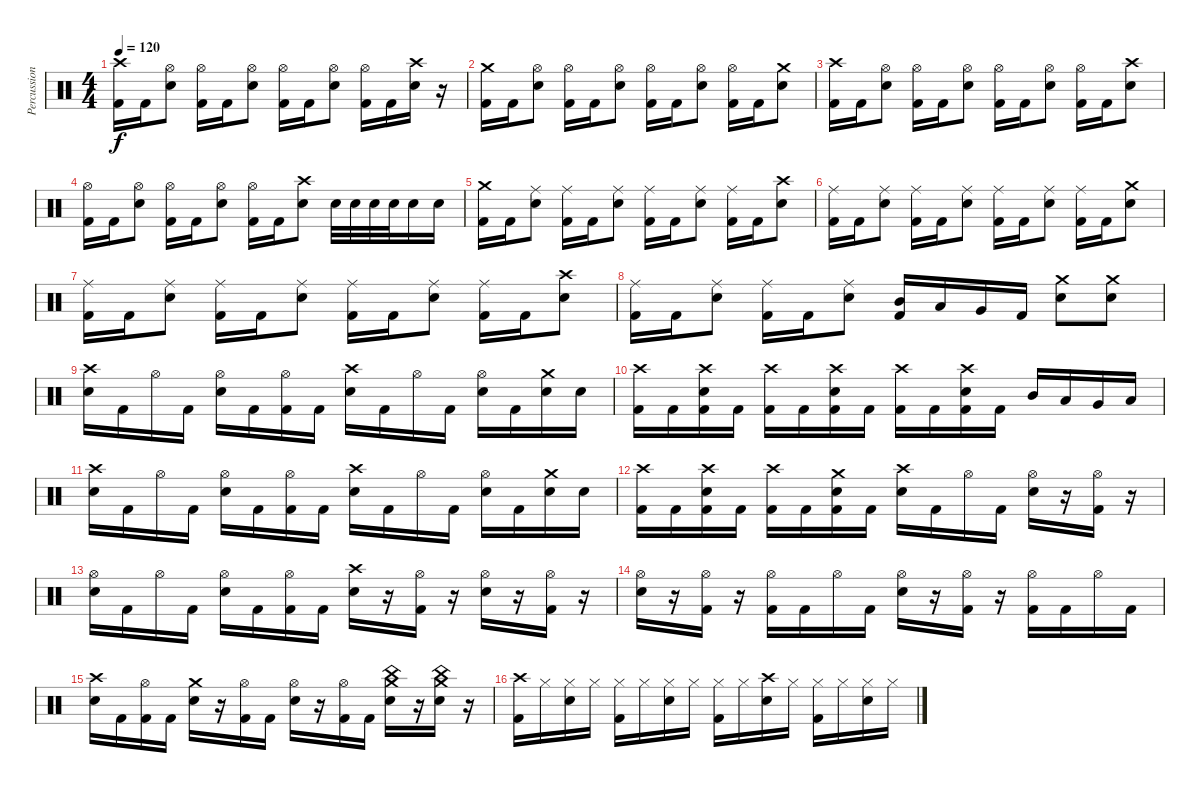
\track ("Percussion" "Percussion") {instrument percussion}
\staff {score}
\articulation defaults
\ts (4 4)
\tempo 120
\clef neutral
\ks c
("Kick (hit) 2" "Crash high (hit)").16{dy f} "Kick (hit) 2".16 ("Snare (hit) 2" "Hi-Hat (open)").8 ("Kick (hit) 2" "Hi-Hat (open)").16 "Kick (hit) 2".16 ("Snare (hit) 2" "Hi-Hat (open)").8 ("Kick (hit) 2" "Hi-Hat (open)").16 "Kick (hit) 2".16 ("Snare (hit) 2" "Hi-Hat (open)").8 ("Kick (hit) 2" "Hi-Hat (open)").16 "Kick (hit) 2".16 ("Snare (hit) 2" "Crash high (hit)").16 r.16 |
("Kick (hit) 2" "Crash medium (hit)").16 "Kick (hit) 2".16 ("Snare (hit) 2" "Hi-Hat (open)").8 ("Kick (hit) 2" "Hi-Hat (open)").16 "Kick (hit) 2".16 ("Snare (hit) 2" "Hi-Hat (open)").8 ("Kick (hit) 2" "Hi-Hat (open)").16 "Kick (hit) 2".16 ("Snare (hit) 2" "Hi-Hat (open)").8 ("Kick (hit) 2" "Hi-Hat (open)").16 "Kick (hit) 2".16 ("Snare (hit) 2" "Crash medium (hit)").8 |
("Kick (hit) 2" "Crash high (hit)").16 "Kick (hit) 2".16 ("Snare (hit) 2" "Hi-Hat (open)").8 ("Kick (hit) 2" "Hi-Hat (open)").16 "Kick (hit) 2".16 ("Snare (hit) 2" "Hi-Hat (open)").8 ("Kick (hit) 2" "Hi-Hat (open)").16 "Kick (hit) 2".16 ("Snare (hit) 2" "Hi-Hat (open)").8 ("Kick (hit) 2" "Hi-Hat (open)").16 "Kick (hit) 2".16 ("Snare (hit) 2" "Crash high (hit)").8 |
("Kick (hit) 2" "Hi-Hat (open)").16 "Kick (hit) 2".16 ("Snare (hit) 2" "Hi-Hat (open)").8 ("Kick (hit) 2" "Hi-Hat (open)").16 "Kick (hit) 2".16 ("Snare (hit) 2" "Hi-Hat (open)").8 ("Kick (hit) 2" "Hi-Hat (open)").16 "Kick (hit) 2".16 ("Snare (hit) 2" "Crash high (hit)").8 "Snare (hit) 2".32 "Snare (hit) 2".32 "Snare (hit) 2".32 "Snare (hit) 2".32 "Snare (hit) 2".16 "Snare (hit) 2".16 |
("Kick (hit) 2" "Crash medium (hit)").16 "Kick (hit) 2".16 ("Snare (hit) 2" "Ride (middle)").8 ("Kick (hit) 2" "Ride (middle)").16 "Kick (hit) 2".16 ("Snare (hit) 2" "Ride (middle)").8 ("Kick (hit) 2" "Ride (middle)").16 "Kick (hit) 2".16 ("Snare (hit) 2" "Ride (middle)").8 ("Kick (hit) 2" "Ride (middle)").16 "Kick (hit) 2".16 ("Snare (hit) 2" "Crash high (hit)").8 |
("Kick (hit) 2" "Ride (middle)").16 "Kick (hit) 2".16 ("Snare (hit) 2" "Ride (middle)").8 ("Kick (hit) 2" "Ride (middle)").16 "Kick (hit) 2".16 ("Snare (hit) 2" "Ride (middle)").8 ("Kick (hit) 2" "Ride (middle)").16 "Kick (hit) 2".16 ("Snare (hit) 2" "Ride (middle)").8 ("Kick (hit) 2" "Ride (middle)").16 "Kick (hit) 2".16 ("Snare (hit) 2" "Crash medium (hit)").8 |
("Kick (hit) 2" "Ride (middle)").16 "Kick (hit) 2".16 ("Snare (hit) 2" "Ride (middle)").8 ("Kick (hit) 2" "Ride (middle)").16 "Kick (hit) 2".16 ("Snare (hit) 2" "Ride (middle)").8 ("Kick (hit) 2" "Ride (middle)").16 "Kick (hit) 2".16 ("Snare (hit) 2" "Ride (middle)").8 ("Kick (hit) 2" "Ride (middle)").16 "Kick (hit) 2".16 ("Snare (hit) 2" "Crash high (hit)").8 |
("Kick (hit) 2" "Ride (middle)").16 "Kick (hit) 2".16 ("Snare (hit) 2" "Ride (middle)").8 ("Kick (hit) 2" "Ride (middle)").16 "Kick (hit) 2".16 ("Snare (hit) 2" "Ride (middle)").8 ("Mid Tom (hit)" "Kick (hit) 2").16 "Low Tom (hit)".16 "Very Low Tom (hit)".16 "Kick (hit) 2".16 ("Crash medium (hit)" "Snare (hit) 2").8 ("Crash medium (hit)" "Snare (hit) 2").8 |
("Crash high (hit)" "Snare (hit) 2").16 "Kick (hit) 2".16 "Hi-Hat (open)".16 "Kick (hit) 2".16 ("Hi-Hat (open)" "Snare (hit) 2").16 "Kick (hit) 2".16 ("Hi-Hat (open)" "Kick (hit) 2").16 "Kick (hit) 2".16 ("Crash high (hit)" "Snare (hit) 2").16 "Kick (hit) 2".16 "Hi-Hat (open)".16 "Kick (hit) 2".16 ("Hi-Hat (open)" "Snare (hit) 2").16 "Kick (hit) 2".16 ("Crash medium (hit)" "Snare (hit) 2").16 "Snare (hit) 2".16 |
("Crash high (hit)" "Kick (hit) 2").16 "Kick (hit) 2".16 ("Crash high (hit)" "Snare (hit) 2" "Kick (hit) 2").16 "Kick (hit) 2".16 ("Crash high (hit)" "Kick (hit) 2").16 "Kick (hit) 2".16 ("Crash high (hit)" "Snare (hit) 2" "Kick (hit) 2").16 "Kick (hit) 2".16 ("Crash high (hit)" "Kick (hit) 2").16 "Kick (hit) 2".16 ("Crash high (hit)" "Snare (hit) 2" "Kick (hit) 2").16 "Kick (hit) 2".16 "Mid Tom (hit)".16 "Low Tom (hit)".16 "Very Low Tom (hit)".16 "Low Floor Tom (hit)".16 |
("Crash high (hit)" "Snare (hit) 2").16 "Kick (hit) 2".16 "Hi-Hat (open)".16 "Kick (hit) 2".16 ("Hi-Hat (open)" "Snare (hit) 2").16 "Kick (hit) 2".16 ("Hi-Hat (open)" "Kick (hit) 2").16 "Kick (hit) 2".16 ("Crash high (hit)" "Snare (hit) 2").16 "Kick (hit) 2".16 "Hi-Hat (open)".16 "Kick (hit) 2".16 ("Hi-Hat (open)" "Snare (hit) 2").16 "Kick (hit) 2".16 ("Crash medium (hit)" "Snare (hit) 2").16 "Snare (hit) 2".16 |
("Crash high (hit)" "Kick (hit) 2").16 "Kick (hit) 2".16 ("Crash high (hit)" "Snare (hit) 2" "Kick (hit) 2").16 "Kick (hit) 2".16 ("Crash high (hit)" "Kick (hit) 2").16 "Kick (hit) 2".16 ("Crash medium (hit)" "Snare (hit) 2" "Kick (hit) 2").16 "Kick (hit) 2".16 ("Crash high (hit)" "Snare (hit) 2").16 "Kick (hit) 2".16 "Hi-Hat (open)".16 "Kick (hit) 2".16 ("Hi-Hat (open)" "Snare (hit) 2").16 r.16 ("Hi-Hat (open)" "Kick (hit) 2").16 r.16 |
("Hi-Hat (open)" "Snare (hit) 2").16 "Kick (hit) 2".16 "Hi-Hat (open)".16 "Kick (hit) 2".16 ("Hi-Hat (open)" "Snare (hit) 2").16 "Kick (hit) 2".16 ("Hi-Hat (open)" "Kick (hit) 2").16 "Kick (hit) 2".16 ("Crash high (hit)" "Snare (hit) 2").16 r.16 ("Hi-Hat (open)" "Kick (hit) 2").16 r.16 ("Hi-Hat (open)" "Snare (hit) 2").16 r.16 ("Hi-Hat (open)" "Kick (hit) 2").16 r.16 |
("Hi-Hat (open)" "Snare (hit) 2").16 r.16 ("Hi-Hat (open)" "Kick (hit) 2").16 r.16 ("Hi-Hat (open)" "Kick (hit) 2").16 "Kick (hit) 2".16 "Hi-Hat (open)".16 "Kick (hit) 2".16 ("Hi-Hat (open)" "Snare (hit) 2").16 r.16 ("Hi-Hat (open)" "Kick (hit) 2").16 r.16 ("Hi-Hat (open)" "Kick (hit) 2").16 "Kick (hit) 2".16 "Hi-Hat (open)".16 "Kick (hit) 2".16 |
("Crash high (hit)" "Snare (hit) 2").16 "Kick (hit) 2".16 ("Hi-Hat (open)" "Kick (hit) 2").16 "Kick (hit) 2".16 ("Crash medium (hit)" "Snare (hit) 2").16 r.16 ("Hi-Hat (open)" "Kick (hit) 2").16 "Kick (hit) 2".16 ("Hi-Hat (open)" "Snare (hit) 2").16 r.16 ("Hi-Hat (open)" "Kick (hit) 2").16 "Kick (hit) 2".16 ("China (hit)" "Crash medium (hit)" "Snare (hit) 2").16 r.16 ("China (hit)" "Crash medium (hit)" "Snare (hit) 2").16 r.16 |
("Crash high (hit)" "Kick (hit) 2").16 "Hi-Hat (closed)".16 ("Hi-Hat (closed)" "Snare (hit) 2").16 "Hi-Hat (closed)".16 ("Hi-Hat (closed)" "Kick (hit) 2").16 "Hi-Hat (closed)".16 ("Hi-Hat (closed)" "Snare (hit) 2").16 "Hi-Hat (closed)".16 ("Hi-Hat (closed)" "Kick (hit) 2").16 "Hi-Hat (closed)".16 ("Crash high (hit)" "Snare (hit) 2").16 "Hi-Hat (closed)".16 ("Hi-Hat (closed)" "Kick (hit) 2").16 "Hi-Hat (closed)".16 ("Hi-Hat (closed)" "Snare (hit) 2").16 "Hi-Hat (closed)".16
